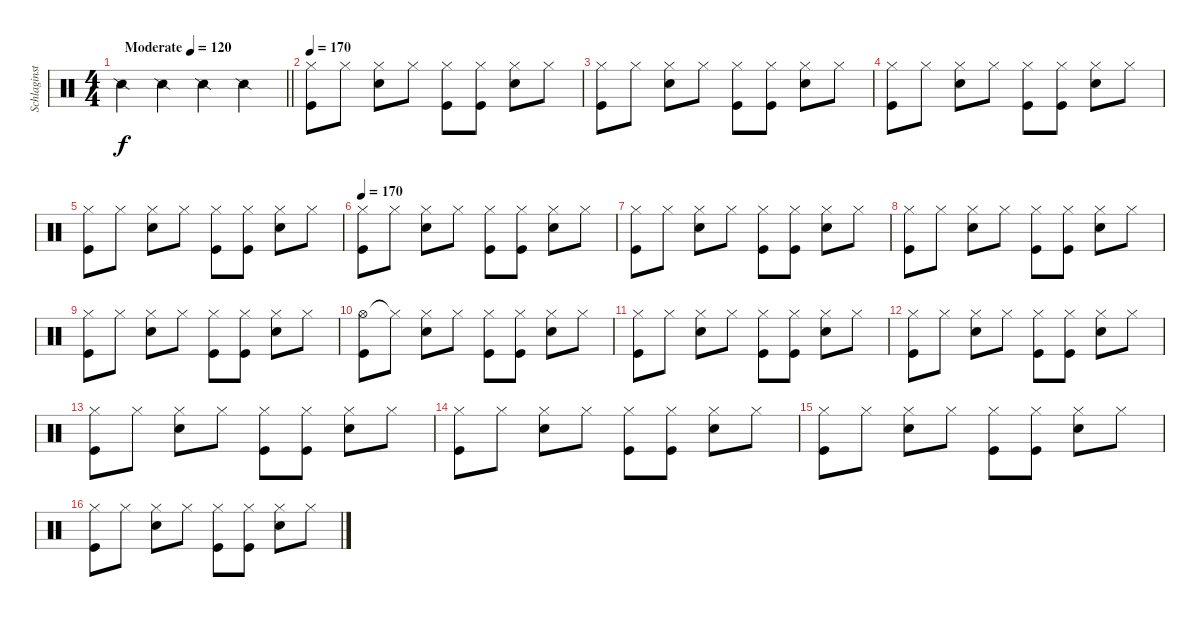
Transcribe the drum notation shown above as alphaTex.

\track ("Schlaginstrumente - Auswahl" "Schlaginst") {instrument percussion}
\staff {score}
\articulation defaults
\ts (4 4)
\tempo (120 "Moderate")
\clef neutral
\barLineRight lightlight
\ks c "Snare (side stick) 2".4{dy f} "Snare (side stick) 2".4 "Snare (side stick) 2".4 "Snare (side stick) 2".4
|
\tempo 170
("Hi-Hat (closed)" "Kick (hit)").8 "Hi-Hat (closed)".8 ("Hi-Hat (closed)" "Electric Snare (hit)").8 "Hi-Hat (closed)".8 ("Hi-Hat (closed)" "Kick (hit)").8 ("Hi-Hat (closed)" "Kick (hit)").8 ("Hi-Hat (closed)" "Electric Snare (hit)").8 "Hi-Hat (closed)".8 |
("Hi-Hat (closed)" "Kick (hit)").8 "Hi-Hat (closed)".8 ("Hi-Hat (closed)" "Electric Snare (hit)").8 "Hi-Hat (closed)".8 ("Hi-Hat (closed)" "Kick (hit)").8 ("Hi-Hat (closed)" "Kick (hit)").8 ("Hi-Hat (closed)" "Electric Snare (hit)").8 "Hi-Hat (closed)".8 |
("Hi-Hat (closed)" "Kick (hit)").8 "Hi-Hat (closed)".8 ("Hi-Hat (closed)" "Electric Snare (hit)").8 "Hi-Hat (closed)".8 ("Hi-Hat (closed)" "Kick (hit)").8 ("Hi-Hat (closed)" "Kick (hit)").8 ("Hi-Hat (closed)" "Electric Snare (hit)").8 "Hi-Hat (closed)".8 |
("Hi-Hat (closed)" "Kick (hit)").8 "Hi-Hat (closed)".8 ("Hi-Hat (closed)" "Electric Snare (hit)").8 "Hi-Hat (closed)".8 ("Hi-Hat (closed)" "Kick (hit)").8 ("Hi-Hat (closed)" "Kick (hit)").8 ("Hi-Hat (closed)" "Electric Snare (hit)").8 "Hi-Hat (closed)".8 |
\tempo 170
("Hi-Hat (closed)" "Kick (hit)").8 "Hi-Hat (closed)".8 ("Hi-Hat (closed)" "Electric Snare (hit)").8 "Hi-Hat (closed)".8 ("Hi-Hat (closed)" "Kick (hit)").8 ("Hi-Hat (closed)" "Kick (hit)").8 ("Hi-Hat (closed)" "Electric Snare (hit)").8 "Hi-Hat (closed)".8 |
("Hi-Hat (closed)" "Kick (hit)").8 "Hi-Hat (closed)".8 ("Hi-Hat (closed)" "Electric Snare (hit)").8 "Hi-Hat (closed)".8 ("Hi-Hat (closed)" "Kick (hit)").8 ("Hi-Hat (closed)" "Kick (hit)").8 ("Hi-Hat (closed)" "Electric Snare (hit)").8 "Hi-Hat (closed)".8 |
("Hi-Hat (closed)" "Kick (hit)").8 "Hi-Hat (closed)".8 ("Hi-Hat (closed)" "Electric Snare (hit)").8 "Hi-Hat (closed)".8 ("Hi-Hat (closed)" "Kick (hit)").8 ("Hi-Hat (closed)" "Kick (hit)").8 ("Hi-Hat (closed)" "Electric Snare (hit)").8 "Hi-Hat (closed)".8 |
("Hi-Hat (closed)" "Kick (hit)").8 "Hi-Hat (closed)".8 ("Hi-Hat (closed)" "Electric Snare (hit)").8 "Hi-Hat (closed)".8 ("Hi-Hat (closed)" "Kick (hit)").8 ("Hi-Hat (closed)" "Kick (hit)").8 ("Hi-Hat (closed)" "Electric Snare (hit)").8 "Hi-Hat (closed)".8 |
("Hi-Hat (open)" "Kick (hit)").8 "Hi-Hat (closed)"{t}.8 ("Hi-Hat (closed)" "Electric Snare (hit)").8 "Hi-Hat (closed)".8 ("Hi-Hat (closed)" "Kick (hit)").8 ("Hi-Hat (closed)" "Kick (hit)").8 ("Hi-Hat (closed)" "Electric Snare (hit)").8 "Hi-Hat (closed)".8 |
("Hi-Hat (closed)" "Kick (hit)").8 "Hi-Hat (closed)".8 ("Hi-Hat (closed)" "Electric Snare (hit)").8 "Hi-Hat (closed)".8 ("Hi-Hat (closed)" "Kick (hit)").8 ("Hi-Hat (closed)" "Kick (hit)").8 ("Hi-Hat (closed)" "Electric Snare (hit)").8 "Hi-Hat (closed)".8 |
("Hi-Hat (closed)" "Kick (hit)").8 "Hi-Hat (closed)".8 ("Hi-Hat (closed)" "Electric Snare (hit)").8 "Hi-Hat (closed)".8 ("Hi-Hat (closed)" "Kick (hit)").8 ("Hi-Hat (closed)" "Kick (hit)").8 ("Hi-Hat (closed)" "Electric Snare (hit)").8 "Hi-Hat (closed)".8 |
("Hi-Hat (closed)" "Kick (hit)").8 "Hi-Hat (closed)".8 ("Hi-Hat (closed)" "Electric Snare (hit)").8 "Hi-Hat (closed)".8 ("Hi-Hat (closed)" "Kick (hit)").8 ("Hi-Hat (closed)" "Kick (hit)").8 ("Hi-Hat (closed)" "Electric Snare (hit)").8 "Hi-Hat (closed)".8 |
("Hi-Hat (closed)" "Kick (hit)").8 "Hi-Hat (closed)".8 ("Hi-Hat (closed)" "Electric Snare (hit)").8 "Hi-Hat (closed)".8 ("Hi-Hat (closed)" "Kick (hit)").8 ("Hi-Hat (closed)" "Kick (hit)").8 ("Hi-Hat (closed)" "Electric Snare (hit)").8 "Hi-Hat (closed)".8 |
("Hi-Hat (closed)" "Kick (hit)").8 "Hi-Hat (closed)".8 ("Hi-Hat (closed)" "Electric Snare (hit)").8 "Hi-Hat (closed)".8 ("Hi-Hat (closed)" "Kick (hit)").8 ("Hi-Hat (closed)" "Kick (hit)").8 ("Hi-Hat (closed)" "Electric Snare (hit)").8 "Hi-Hat (closed)".8 |
("Hi-Hat (closed)" "Kick (hit)").8 "Hi-Hat (closed)".8 ("Hi-Hat (closed)" "Electric Snare (hit)").8 "Hi-Hat (closed)".8 ("Hi-Hat (closed)" "Kick (hit)").8 ("Hi-Hat (closed)" "Kick (hit)").8 ("Hi-Hat (closed)" "Electric Snare (hit)").8 "Hi-Hat (closed)".8
